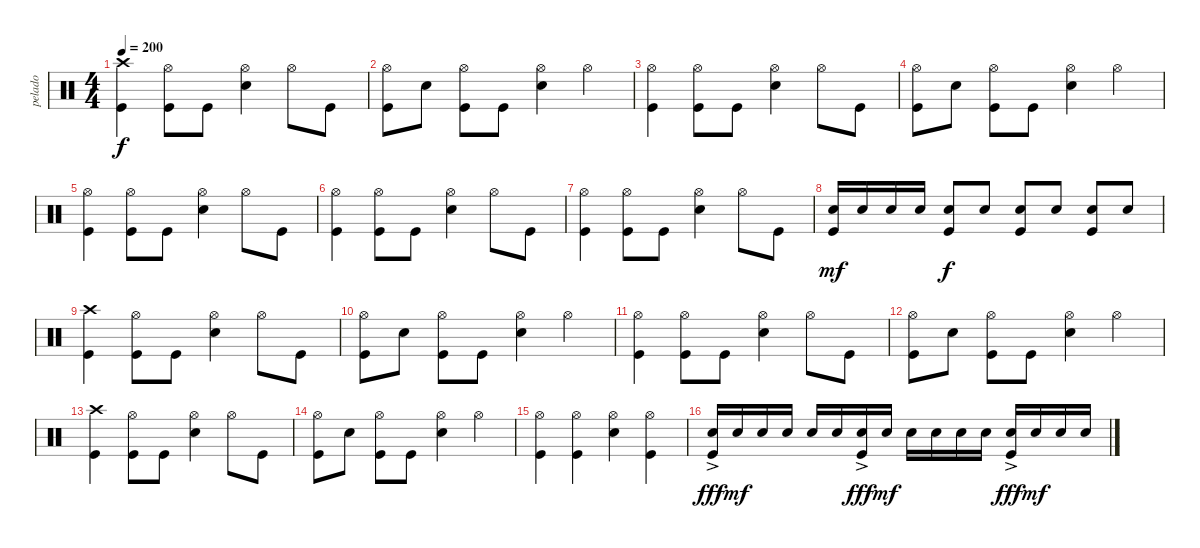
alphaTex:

\track ("pelado" "pelado") {instrument percussion}
\staff {score}
\articulation defaults
\ts (4 4)
\tempo 200
\clef neutral
\ks c
("Crash high (hit)" "Kick (hit)").4{dy f} ("Hi-Hat (open)" "Kick (hit)").8 "Kick (hit)".8 ("Hi-Hat (open)" "Electric Snare (hit)").4 "Hi-Hat (open)".8 "Kick (hit)".8 |
("Hi-Hat (open)" "Kick (hit)").8 "Electric Snare (hit)".8 ("Hi-Hat (open)" "Kick (hit)").8 "Kick (hit)".8 ("Hi-Hat (open)" "Electric Snare (hit)").4 "Hi-Hat (open)".4 |
("Hi-Hat (open)" "Kick (hit)").4 ("Hi-Hat (open)" "Kick (hit)").8 "Kick (hit)".8 ("Hi-Hat (open)" "Electric Snare (hit)").4 "Hi-Hat (open)".8 "Kick (hit)".8 |
("Hi-Hat (open)" "Kick (hit)").8 "Electric Snare (hit)".8 ("Hi-Hat (open)" "Kick (hit)").8 "Kick (hit)".8 ("Hi-Hat (open)" "Electric Snare (hit)").4 "Hi-Hat (open)".4 |
("Hi-Hat (open)" "Kick (hit)").4 ("Hi-Hat (open)" "Kick (hit)").8 "Kick (hit)".8 ("Hi-Hat (open)" "Electric Snare (hit)").4 "Hi-Hat (open)".8 "Kick (hit)".8 |
("Hi-Hat (open)" "Kick (hit)").4 ("Hi-Hat (open)" "Kick (hit)").8 "Kick (hit)".8 ("Hi-Hat (open)" "Electric Snare (hit)").4 "Hi-Hat (open)".8 "Kick (hit)".8 |
("Hi-Hat (open)" "Kick (hit)").4 ("Hi-Hat (open)" "Kick (hit)").8 "Kick (hit)".8 ("Hi-Hat (open)" "Electric Snare (hit)").4 "Hi-Hat (open)".8 "Kick (hit)".8 |
("Electric Snare (hit)" "Kick (hit)").16{dy mf} "Electric Snare (hit)".16 "Electric Snare (hit)".16 "Electric Snare (hit)".16 ("Electric Snare (hit)" "Kick (hit)").8{dy f} "Electric Snare (hit)".8 ("Electric Snare (hit)" "Kick (hit)").8 "Electric Snare (hit)".8 ("Electric Snare (hit)" "Kick (hit)").8 "Electric Snare (hit)".8 |
("Crash high (hit)" "Kick (hit)").4 ("Hi-Hat (open)" "Kick (hit)").8 "Kick (hit)".8 ("Hi-Hat (open)" "Electric Snare (hit)").4 "Hi-Hat (open)".8 "Kick (hit)".8 |
("Hi-Hat (open)" "Kick (hit)").8 "Electric Snare (hit)".8 ("Hi-Hat (open)" "Kick (hit)").8 "Kick (hit)".8 ("Hi-Hat (open)" "Electric Snare (hit)").4 "Hi-Hat (open)".4 |
("Hi-Hat (open)" "Kick (hit)").4 ("Hi-Hat (open)" "Kick (hit)").8 "Kick (hit)".8 ("Hi-Hat (open)" "Electric Snare (hit)").4 "Hi-Hat (open)".8 "Kick (hit)".8 |
("Hi-Hat (open)" "Kick (hit)").8 "Electric Snare (hit)".8 ("Hi-Hat (open)" "Kick (hit)").8 "Kick (hit)".8 ("Hi-Hat (open)" "Electric Snare (hit)").4 "Hi-Hat (open)".4 |
("Crash high (hit)" "Kick (hit)").4 ("Hi-Hat (open)" "Kick (hit)").8 "Kick (hit)".8 ("Hi-Hat (open)" "Electric Snare (hit)").4 "Hi-Hat (open)".8 "Kick (hit)".8 |
("Hi-Hat (open)" "Kick (hit)").8 "Electric Snare (hit)".8 ("Hi-Hat (open)" "Kick (hit)").8 "Kick (hit)".8 ("Hi-Hat (open)" "Electric Snare (hit)").4 "Hi-Hat (open)".4 |
("Hi-Hat (open)" "Kick (hit)").4 ("Hi-Hat (open)" "Kick (hit)").4 ("Hi-Hat (open)" "Electric Snare (hit)").4 ("Hi-Hat (open)" "Kick (hit)").4 |
("Electric Snare (hit)"{ac} "Kick (hit)").16{dy fff} "Electric Snare (hit)".16{dy mf} "Electric Snare (hit)".16 "Electric Snare (hit)".16 "Electric Snare (hit)".16 "Electric Snare (hit)".16 ("Electric Snare (hit)"{ac} "Kick (hit)").16{dy fff} "Electric Snare (hit)".16{dy mf} "Electric Snare (hit)".16 "Electric Snare (hit)".16 "Electric Snare (hit)".16 "Electric Snare (hit)".16 ("Electric Snare (hit)"{ac} "Kick (hit)").16{dy fff} "Electric Snare (hit)".16{dy mf} "Electric Snare (hit)".16 "Electric Snare (hit)".16
